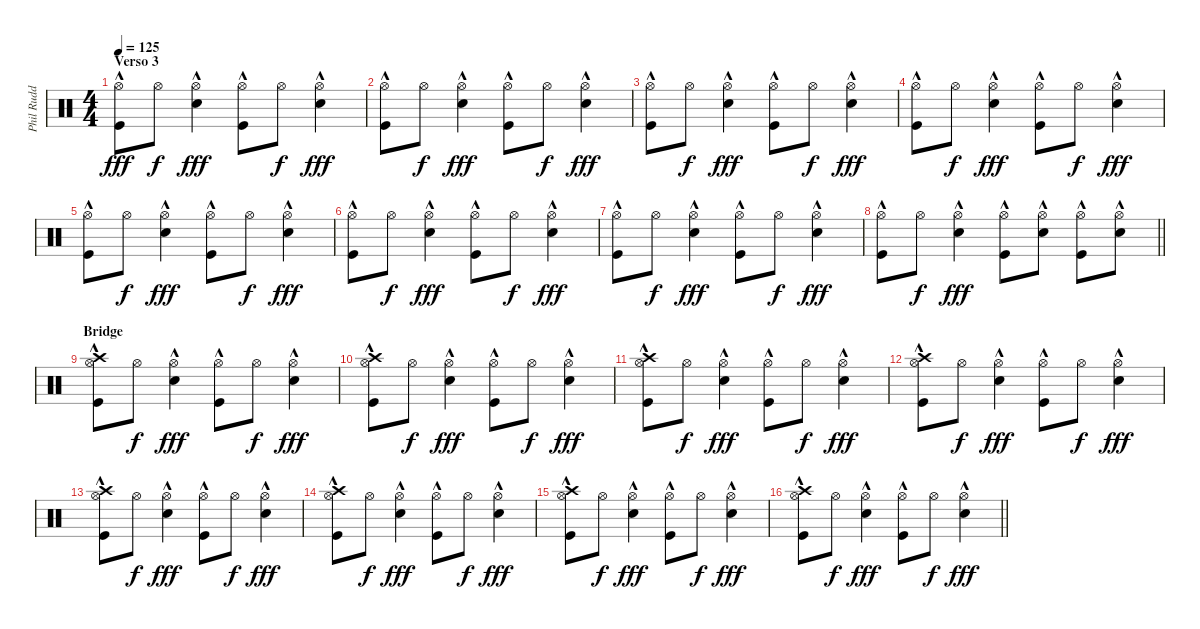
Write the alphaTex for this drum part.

\track ("Phil Rudd" "Phil Rudd") {instrument percussion}
\staff {score}
\articulation defaults
\ts (4 4)
\section ("" "Verso 3")
\tempo 125
\clef neutral
\ks c
("Hi-Hat (open)" "Kick (hit)"{hac}).8{dy fff} "Hi-Hat (open)".8{dy f} ("Snare (hit) 2"{hac} "Hi-Hat (open)").4{dy fff} ("Hi-Hat (open)" "Kick (hit)"{hac}).8 "Hi-Hat (open)".8{dy f} ("Snare (hit) 2"{hac} "Hi-Hat (open)").4{dy fff} |
("Hi-Hat (open)" "Kick (hit)"{hac}).8 "Hi-Hat (open)".8{dy f} ("Snare (hit) 2"{hac} "Hi-Hat (open)").4{dy fff} ("Hi-Hat (open)" "Kick (hit)"{hac}).8 "Hi-Hat (open)".8{dy f} ("Snare (hit) 2"{hac} "Hi-Hat (open)").4{dy fff} |
("Hi-Hat (open)" "Kick (hit)"{hac}).8 "Hi-Hat (open)".8{dy f} ("Snare (hit) 2"{hac} "Hi-Hat (open)").4{dy fff} ("Hi-Hat (open)" "Kick (hit)"{hac}).8 "Hi-Hat (open)".8{dy f} ("Snare (hit) 2"{hac} "Hi-Hat (open)").4{dy fff} |
("Hi-Hat (open)" "Kick (hit)"{hac}).8 "Hi-Hat (open)".8{dy f} ("Snare (hit) 2"{hac} "Hi-Hat (open)").4{dy fff} ("Hi-Hat (open)" "Kick (hit)"{hac}).8 "Hi-Hat (open)".8{dy f} ("Snare (hit) 2"{hac} "Hi-Hat (open)").4{dy fff} |
("Hi-Hat (open)" "Kick (hit)"{hac}).8 "Hi-Hat (open)".8{dy f} ("Snare (hit) 2"{hac} "Hi-Hat (open)").4{dy fff} ("Hi-Hat (open)" "Kick (hit)"{hac}).8 "Hi-Hat (open)".8{dy f} ("Snare (hit) 2"{hac} "Hi-Hat (open)").4{dy fff} |
("Hi-Hat (open)" "Kick (hit)"{hac}).8 "Hi-Hat (open)".8{dy f} ("Snare (hit) 2"{hac} "Hi-Hat (open)").4{dy fff} ("Hi-Hat (open)" "Kick (hit)"{hac}).8 "Hi-Hat (open)".8{dy f} ("Snare (hit) 2"{hac} "Hi-Hat (open)").4{dy fff} |
("Hi-Hat (open)" "Kick (hit)"{hac}).8 "Hi-Hat (open)".8{dy f} ("Snare (hit) 2"{hac} "Hi-Hat (open)").4{dy fff} ("Hi-Hat (open)" "Kick (hit)"{hac}).8 "Hi-Hat (open)".8{dy f} ("Snare (hit) 2"{hac} "Hi-Hat (open)").4{dy fff} |
\barLineRight lightlight
("Hi-Hat (open)" "Kick (hit)"{hac}).8 "Hi-Hat (open)".8{dy f} ("Snare (hit) 2"{hac} "Hi-Hat (open)").4{dy fff} ("Hi-Hat (open)"{hac} "Kick (hit)").8 ("Snare (hit) 2"{hac} "Hi-Hat (open)").8 ("Hi-Hat (open)"{hac} "Kick (hit)").8 ("Snare (hit) 2"{hac} "Hi-Hat (open)").8 |
\section ("" "Bridge")
("Hi-Hat (open)" "Crash high (hit)" "Kick (hit)"{hac}).8 "Hi-Hat (open)".8{dy f} ("Snare (hit) 2"{hac} "Hi-Hat (open)").4{dy fff} ("Hi-Hat (open)" "Kick (hit)"{hac}).8 "Hi-Hat (open)".8{dy f} ("Snare (hit) 2"{hac} "Hi-Hat (open)").4{dy fff} |
("Hi-Hat (open)" "Crash high (hit)" "Kick (hit)"{hac}).8 "Hi-Hat (open)".8{dy f} ("Snare (hit) 2"{hac} "Hi-Hat (open)").4{dy fff} ("Hi-Hat (open)" "Kick (hit)"{hac}).8 "Hi-Hat (open)".8{dy f} ("Snare (hit) 2"{hac} "Hi-Hat (open)").4{dy fff} |
("Hi-Hat (open)" "Crash high (hit)" "Kick (hit)"{hac}).8 "Hi-Hat (open)".8{dy f} ("Snare (hit) 2"{hac} "Hi-Hat (open)").4{dy fff} ("Hi-Hat (open)" "Kick (hit)"{hac}).8 "Hi-Hat (open)".8{dy f} ("Snare (hit) 2"{hac} "Hi-Hat (open)").4{dy fff} |
("Hi-Hat (open)" "Crash high (hit)" "Kick (hit)"{hac}).8 "Hi-Hat (open)".8{dy f} ("Snare (hit) 2"{hac} "Hi-Hat (open)").4{dy fff} ("Hi-Hat (open)" "Kick (hit)"{hac}).8 "Hi-Hat (open)".8{dy f} ("Snare (hit) 2"{hac} "Hi-Hat (open)").4{dy fff} |
("Hi-Hat (open)" "Crash high (hit)" "Kick (hit)"{hac}).8 "Hi-Hat (open)".8{dy f} ("Snare (hit) 2"{hac} "Hi-Hat (open)").4{dy fff} ("Hi-Hat (open)" "Kick (hit)"{hac}).8 "Hi-Hat (open)".8{dy f} ("Snare (hit) 2"{hac} "Hi-Hat (open)").4{dy fff} |
("Hi-Hat (open)" "Crash high (hit)" "Kick (hit)"{hac}).8 "Hi-Hat (open)".8{dy f} ("Snare (hit) 2"{hac} "Hi-Hat (open)").4{dy fff} ("Hi-Hat (open)" "Kick (hit)"{hac}).8 "Hi-Hat (open)".8{dy f} ("Snare (hit) 2"{hac} "Hi-Hat (open)").4{dy fff} |
("Hi-Hat (open)" "Crash high (hit)" "Kick (hit)"{hac}).8 "Hi-Hat (open)".8{dy f} ("Snare (hit) 2"{hac} "Hi-Hat (open)").4{dy fff} ("Hi-Hat (open)" "Kick (hit)"{hac}).8 "Hi-Hat (open)".8{dy f} ("Snare (hit) 2"{hac} "Hi-Hat (open)").4{dy fff} |
\barLineRight lightlight
("Hi-Hat (open)" "Crash high (hit)" "Kick (hit)"{hac}).8 "Hi-Hat (open)".8{dy f} ("Snare (hit) 2"{hac} "Hi-Hat (open)").4{dy fff} ("Hi-Hat (open)" "Kick (hit)"{hac}).8 "Hi-Hat (open)".8{dy f} ("Snare (hit) 2"{hac} "Hi-Hat (open)").4{dy fff}
